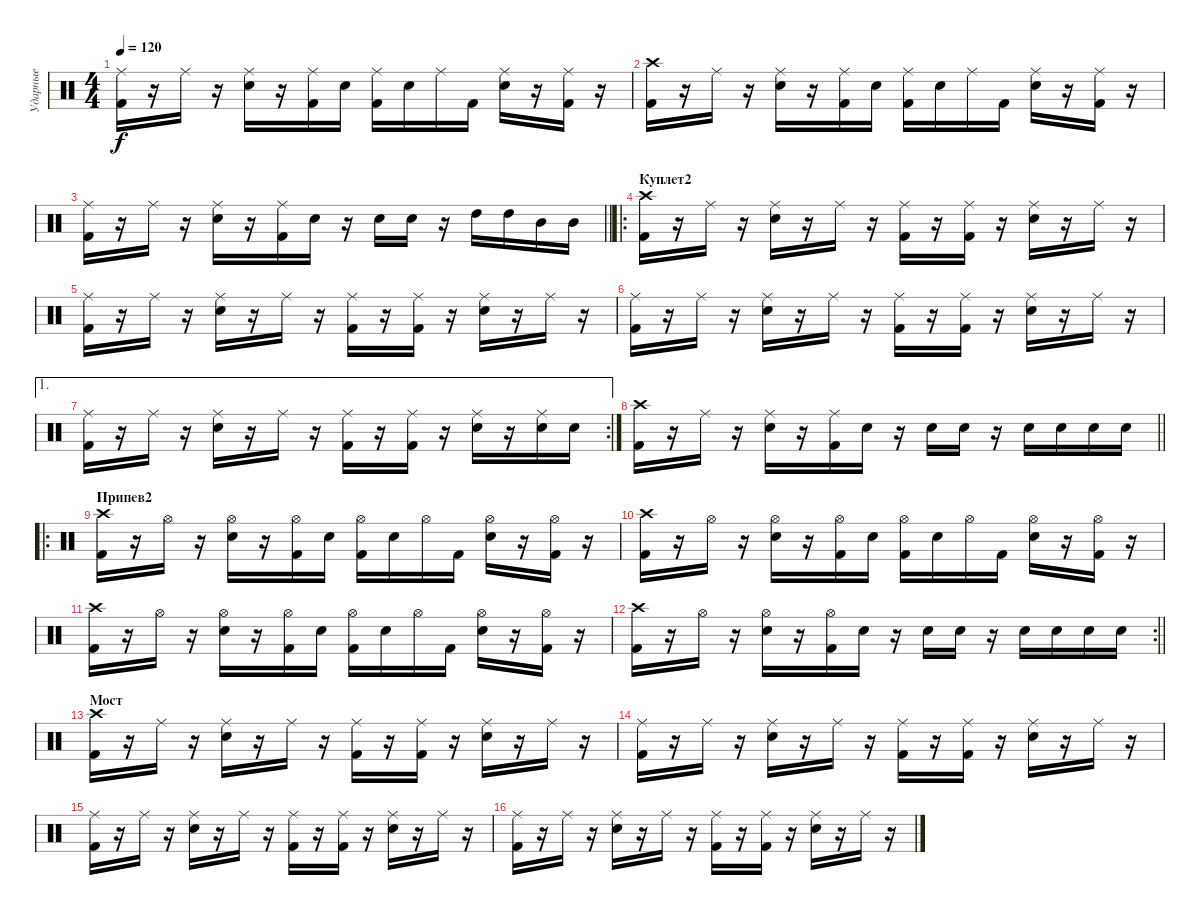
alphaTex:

\track ("Ударные" "Ударные") {instrument percussion}
\staff {score}
\articulation defaults
\ts (4 4)
\tempo 120
\clef neutral
\ks c
("Ride (middle)" "Kick (hit) 2").16{dy f} r.16 "Ride (middle)".16 r.16 ("Ride (middle)" "Electric Snare (hit)").16 r.16 ("Ride (middle)" "Kick (hit) 2").16 "Electric Snare (hit)".16 ("Ride (middle)" "Kick (hit) 2").16 "Electric Snare (hit)".16 "Ride (middle)".16 "Kick (hit) 2".16 ("Ride (middle)" "Electric Snare (hit)").16 r.16 ("Ride (middle)" "Kick (hit) 2").16 r.16 |
("Crash high (hit)" "Kick (hit) 2").16 r.16 "Ride (middle)".16 r.16 ("Ride (middle)" "Electric Snare (hit)").16 r.16 ("Ride (middle)" "Kick (hit) 2").16 "Electric Snare (hit)".16 ("Ride (middle)" "Kick (hit) 2").16 "Electric Snare (hit)".16 "Ride (middle)".16 "Kick (hit) 2".16 ("Ride (middle)" "Electric Snare (hit)").16 r.16 ("Ride (middle)" "Kick (hit) 2").16 r.16 |
\barLineRight lightlight
("Ride (middle)" "Kick (hit) 2").16 r.16 "Ride (middle)".16 r.16 ("Ride (middle)" "Electric Snare (hit)").16 r.16 ("Ride (middle)" "Kick (hit) 2").16 "Electric Snare (hit)".16 r.16 "Electric Snare (hit)".16 "Electric Snare (hit)".16 r.16 "High Tom (hit)".16 "High Tom (hit)".16 "Mid Tom (hit)".16 "Mid Tom (hit)".16 |
\ro
\section ("" "Куплет2")
("Crash high (hit)" "Kick (hit) 2").16 r.16 "Ride (middle)".16 r.16 ("Ride (middle)" "Electric Snare (hit)").16 r.16 "Ride (middle)".16 r.16 ("Ride (middle)" "Kick (hit) 2").16 r.16 ("Ride (middle)" "Kick (hit) 2").16 r.16 ("Ride (middle)" "Electric Snare (hit)").16 r.16 "Ride (middle)".16 r.16 |
("Ride (middle)" "Kick (hit) 2").16 r.16 "Ride (middle)".16 r.16 ("Ride (middle)" "Electric Snare (hit)").16 r.16 "Ride (middle)".16 r.16 ("Ride (middle)" "Kick (hit) 2").16 r.16 ("Ride (middle)" "Kick (hit) 2").16 r.16 ("Ride (middle)" "Electric Snare (hit)").16 r.16 "Ride (middle)".16 r.16 |
("Ride (middle)" "Kick (hit) 2").16 r.16 "Ride (middle)".16 r.16 ("Ride (middle)" "Electric Snare (hit)").16 r.16 "Ride (middle)".16 r.16 ("Ride (middle)" "Kick (hit) 2").16 r.16 ("Ride (middle)" "Kick (hit) 2").16 r.16 ("Ride (middle)" "Electric Snare (hit)").16 r.16 "Ride (middle)".16 r.16 |
\ae 1
\rc 2
("Ride (middle)" "Kick (hit) 2").16 r.16 "Ride (middle)".16 r.16 ("Ride (middle)" "Electric Snare (hit)").16 r.16 "Ride (middle)".16 r.16 ("Ride (middle)" "Kick (hit) 2").16 r.16 ("Ride (middle)" "Kick (hit) 2").16 r.16 ("Ride (middle)" "Electric Snare (hit)").16 r.16 ("Ride (middle)" "Electric Snare (hit)").16 "Electric Snare (hit)".16 |
\barLineRight lightlight
("Crash high (hit)" "Kick (hit) 2").16 r.16 "Ride (middle)".16 r.16 ("Ride (middle)" "Electric Snare (hit)").16 r.16 ("Ride (middle)" "Kick (hit) 2").16 "Electric Snare (hit)".16 r.16 "Electric Snare (hit)".16 "Electric Snare (hit)".16 r.16 "Electric Snare (hit)".16 "Electric Snare (hit)".16 "Electric Snare (hit)".16 "Electric Snare (hit)".16 |
\ro
\section ("" "Припев2")
("Crash high (hit)" "Kick (hit) 2").16 r.16 "Hi-Hat (open)".16 r.16 ("Hi-Hat (open)" "Electric Snare (hit)").16 r.16 ("Hi-Hat (open)" "Kick (hit) 2").16 "Electric Snare (hit)".16 ("Hi-Hat (open)" "Kick (hit) 2").16 "Electric Snare (hit)".16 "Hi-Hat (open)".16 "Kick (hit) 2".16 ("Hi-Hat (open)" "Electric Snare (hit)").16 r.16 ("Hi-Hat (open)" "Kick (hit) 2").16 r.16 |
("Crash high (hit)" "Kick (hit) 2").16 r.16 "Hi-Hat (open)".16 r.16 ("Hi-Hat (open)" "Electric Snare (hit)").16 r.16 ("Hi-Hat (open)" "Kick (hit) 2").16 "Electric Snare (hit)".16 ("Hi-Hat (open)" "Kick (hit) 2").16 "Electric Snare (hit)".16 "Hi-Hat (open)".16 "Kick (hit) 2".16 ("Hi-Hat (open)" "Electric Snare (hit)").16 r.16 ("Hi-Hat (open)" "Kick (hit) 2").16 r.16 |
("Crash high (hit)" "Kick (hit) 2").16 r.16 "Hi-Hat (open)".16 r.16 ("Hi-Hat (open)" "Electric Snare (hit)").16 r.16 ("Hi-Hat (open)" "Kick (hit) 2").16 "Electric Snare (hit)".16 ("Hi-Hat (open)" "Kick (hit) 2").16 "Electric Snare (hit)".16 "Hi-Hat (open)".16 "Kick (hit) 2".16 ("Hi-Hat (open)" "Electric Snare (hit)").16 r.16 ("Hi-Hat (open)" "Kick (hit) 2").16 r.16 |
\rc 2
\barLineRight lightlight
("Crash high (hit)" "Kick (hit) 2").16 r.16 "Hi-Hat (open)".16 r.16 ("Hi-Hat (open)" "Electric Snare (hit)").16 r.16 ("Hi-Hat (open)" "Kick (hit) 2").16 "Electric Snare (hit)".16 r.16 "Electric Snare (hit)".16 "Electric Snare (hit)".16 r.16 "Electric Snare (hit)".16 "Electric Snare (hit)".16 "Electric Snare (hit)".16 "Electric Snare (hit)".16 |
\section ("" "Мост")
("Crash high (hit)" "Kick (hit) 2").16 r.16 "Ride (middle)".16 r.16 ("Ride (middle)" "Electric Snare (hit)").16 r.16 "Ride (middle)".16 r.16 ("Ride (middle)" "Kick (hit) 2").16 r.16 ("Ride (middle)" "Kick (hit) 2").16 r.16 ("Ride (middle)" "Electric Snare (hit)").16 r.16 "Ride (middle)".16 r.16 |
("Ride (middle)" "Kick (hit) 2").16 r.16 "Ride (middle)".16 r.16 ("Ride (middle)" "Electric Snare (hit)").16 r.16 "Ride (middle)".16 r.16 ("Ride (middle)" "Kick (hit) 2").16 r.16 ("Ride (middle)" "Kick (hit) 2").16 r.16 ("Ride (middle)" "Electric Snare (hit)").16 r.16 "Ride (middle)".16 r.16 |
("Ride (middle)" "Kick (hit) 2").16 r.16 "Ride (middle)".16 r.16 ("Ride (middle)" "Electric Snare (hit)").16 r.16 "Ride (middle)".16 r.16 ("Ride (middle)" "Kick (hit) 2").16 r.16 ("Ride (middle)" "Kick (hit) 2").16 r.16 ("Ride (middle)" "Electric Snare (hit)").16 r.16 "Ride (middle)".16 r.16 |
("Ride (middle)" "Kick (hit) 2").16 r.16 "Ride (middle)".16 r.16 ("Ride (middle)" "Electric Snare (hit)").16 r.16 "Ride (middle)".16 r.16 ("Ride (middle)" "Kick (hit) 2").16 r.16 ("Ride (middle)" "Kick (hit) 2").16 r.16 ("Ride (middle)" "Electric Snare (hit)").16 r.16 "Ride (middle)".16 r.16
